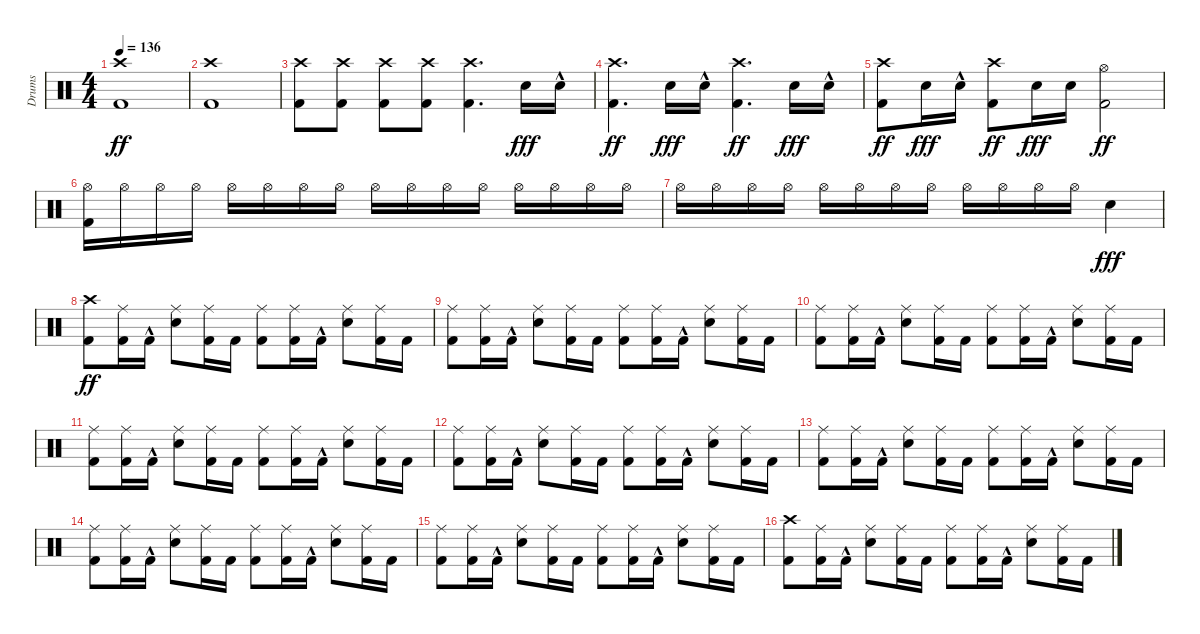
\track ("Drums" "Drums") {instrument percussion}
\staff {score}
\articulation defaults
\ts (4 4)
\tempo 136
\clef neutral
\ks c
("Kick (hit) 2" "Crash high (hit)").1{dy ff} |
("Kick (hit) 2" "Crash high (hit)").1 |
("Kick (hit) 2" "Crash high (hit)").8 ("Kick (hit) 2" "Crash high (hit)").8 ("Kick (hit) 2" "Crash high (hit)").8 ("Kick (hit) 2" "Crash high (hit)").8 ("Kick (hit) 2" "Crash high (hit)").4{d} "Snare (hit) 2".16{dy fff} "Snare (hit) 2"{hac}.16 |
("Kick (hit) 2" "Crash high (hit)").4{d dy ff} "Snare (hit) 2".16{dy fff} "Snare (hit) 2"{hac}.16 ("Kick (hit) 2" "Crash high (hit)").4{d dy ff} "Snare (hit) 2".16{dy fff} "Snare (hit) 2"{hac}.16 |
("Kick (hit) 2" "Crash high (hit)").8{dy ff} "Snare (hit) 2".16{dy fff} "Snare (hit) 2"{hac}.16 ("Kick (hit) 2" "Crash high (hit)").8{dy ff} "Snare (hit) 2".16{dy fff} "Snare (hit) 2".16 ("Kick (hit) 2" "Hi-Hat (open)").2{dy ff} |
("Kick (hit) 2" "Hi-Hat (open)").16 "Hi-Hat (open)".16 "Hi-Hat (open)".16 "Hi-Hat (open)".16 "Hi-Hat (open)".16 "Hi-Hat (open)".16 "Hi-Hat (open)".16 "Hi-Hat (open)".16 "Hi-Hat (open)".16 "Hi-Hat (open)".16 "Hi-Hat (open)".16 "Hi-Hat (open)".16 "Hi-Hat (open)".16 "Hi-Hat (open)".16 "Hi-Hat (open)".16 "Hi-Hat (open)".16 |
"Hi-Hat (open)".16 "Hi-Hat (open)".16 "Hi-Hat (open)".16 "Hi-Hat (open)".16 "Hi-Hat (open)".16 "Hi-Hat (open)".16 "Hi-Hat (open)".16 "Hi-Hat (open)".16 "Hi-Hat (open)".16 "Hi-Hat (open)".16 "Hi-Hat (open)".16 "Hi-Hat (open)".16 "Snare (hit) 2".4{dy fff} |
("Kick (hit) 2" "Crash high (hit)").8{dy ff} ("Kick (hit) 2" "Ride (middle)").16 "Kick (hit) 2"{hac}.16 ("Snare (hit) 2" "Ride (middle)").8 ("Kick (hit) 2" "Ride (middle)").16 "Kick (hit) 2".16 ("Kick (hit) 2" "Ride (middle)").8 ("Kick (hit) 2" "Ride (middle)").16 "Kick (hit) 2"{hac}.16 ("Snare (hit) 2" "Ride (middle)").8 ("Kick (hit) 2" "Ride (middle)").16 "Kick (hit) 2".16 |
("Kick (hit) 2" "Ride (middle)").8 ("Kick (hit) 2" "Ride (middle)").16 "Kick (hit) 2"{hac}.16 ("Snare (hit) 2" "Ride (middle)").8 ("Kick (hit) 2" "Ride (middle)").16 "Kick (hit) 2".16 ("Kick (hit) 2" "Ride (middle)").8 ("Kick (hit) 2" "Ride (middle)").16 "Kick (hit) 2"{hac}.16 ("Snare (hit) 2" "Ride (middle)").8 ("Kick (hit) 2" "Ride (middle)").16 "Kick (hit) 2".16 |
("Kick (hit) 2" "Ride (middle)").8 ("Kick (hit) 2" "Ride (middle)").16 "Kick (hit) 2"{hac}.16 ("Snare (hit) 2" "Ride (middle)").8 ("Kick (hit) 2" "Ride (middle)").16 "Kick (hit) 2".16 ("Kick (hit) 2" "Ride (middle)").8 ("Kick (hit) 2" "Ride (middle)").16 "Kick (hit) 2"{hac}.16 ("Snare (hit) 2" "Ride (middle)").8 ("Kick (hit) 2" "Ride (middle)").16 "Kick (hit) 2".16 |
("Kick (hit) 2" "Ride (middle)").8 ("Kick (hit) 2" "Ride (middle)").16 "Kick (hit) 2"{hac}.16 ("Snare (hit) 2" "Ride (middle)").8 ("Kick (hit) 2" "Ride (middle)").16 "Kick (hit) 2".16 ("Kick (hit) 2" "Ride (middle)").8 ("Kick (hit) 2" "Ride (middle)").16 "Kick (hit) 2"{hac}.16 ("Snare (hit) 2" "Ride (middle)").8 ("Kick (hit) 2" "Ride (middle)").16 "Kick (hit) 2".16 |
("Kick (hit) 2" "Ride (middle)").8 ("Kick (hit) 2" "Ride (middle)").16 "Kick (hit) 2"{hac}.16 ("Snare (hit) 2" "Ride (middle)").8 ("Kick (hit) 2" "Ride (middle)").16 "Kick (hit) 2".16 ("Kick (hit) 2" "Ride (middle)").8 ("Kick (hit) 2" "Ride (middle)").16 "Kick (hit) 2"{hac}.16 ("Snare (hit) 2" "Ride (middle)").8 ("Kick (hit) 2" "Ride (middle)").16 "Kick (hit) 2".16 |
("Kick (hit) 2" "Ride (middle)").8 ("Kick (hit) 2" "Ride (middle)").16 "Kick (hit) 2"{hac}.16 ("Snare (hit) 2" "Ride (middle)").8 ("Kick (hit) 2" "Ride (middle)").16 "Kick (hit) 2".16 ("Kick (hit) 2" "Ride (middle)").8 ("Kick (hit) 2" "Ride (middle)").16 "Kick (hit) 2"{hac}.16 ("Snare (hit) 2" "Ride (middle)").8 ("Kick (hit) 2" "Ride (middle)").16 "Kick (hit) 2".16 |
("Kick (hit) 2" "Ride (middle)").8 ("Kick (hit) 2" "Ride (middle)").16 "Kick (hit) 2"{hac}.16 ("Snare (hit) 2" "Ride (middle)").8 ("Kick (hit) 2" "Ride (middle)").16 "Kick (hit) 2".16 ("Kick (hit) 2" "Ride (middle)").8 ("Kick (hit) 2" "Ride (middle)").16 "Kick (hit) 2"{hac}.16 ("Snare (hit) 2" "Ride (middle)").8 ("Kick (hit) 2" "Ride (middle)").16 "Kick (hit) 2".16 |
("Kick (hit) 2" "Ride (middle)").8 ("Kick (hit) 2" "Ride (middle)").16 "Kick (hit) 2"{hac}.16 ("Snare (hit) 2" "Ride (middle)").8 ("Kick (hit) 2" "Ride (middle)").16 "Kick (hit) 2".16 ("Kick (hit) 2" "Ride (middle)").8 ("Kick (hit) 2" "Ride (middle)").16 "Kick (hit) 2"{hac}.16 ("Snare (hit) 2" "Ride (middle)").8 ("Kick (hit) 2" "Ride (middle)").16 "Kick (hit) 2".16 |
("Kick (hit) 2" "Crash high (hit)").8 ("Kick (hit) 2" "Ride (middle)").16 "Kick (hit) 2"{hac}.16 ("Snare (hit) 2" "Ride (middle)").8 ("Kick (hit) 2" "Ride (middle)").16 "Kick (hit) 2".16 ("Kick (hit) 2" "Ride (middle)").8 ("Kick (hit) 2" "Ride (middle)").16 "Kick (hit) 2"{hac}.16 ("Snare (hit) 2" "Ride (middle)").8 ("Kick (hit) 2" "Ride (middle)").16 "Kick (hit) 2".16
